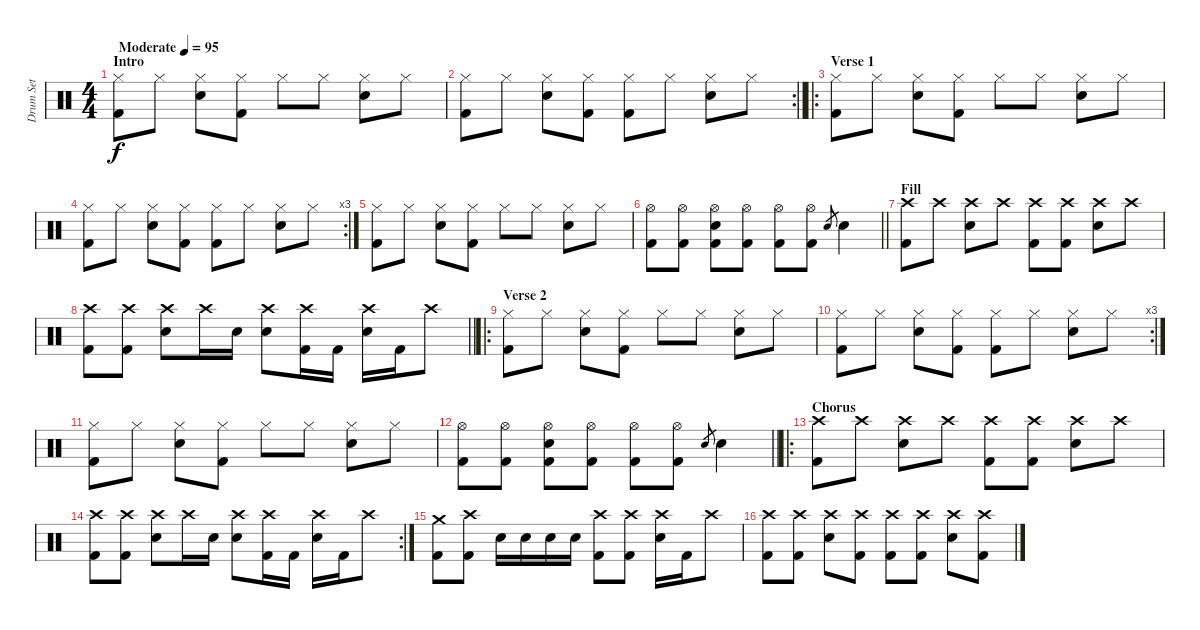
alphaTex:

\track ("Drum Set" "Drum Set") {instrument percussion}
\staff {score}
\articulation defaults
\ts (4 4)
\section ("" "Intro")
\tempo (95 "Moderate")
\clef neutral
\ks c
("Hi-Hat (closed)" "Kick (hit) 2").8{dy f} "Hi-Hat (closed)".8 ("Hi-Hat (closed)" "Snare (hit) 2").8 ("Hi-Hat (closed)" "Kick (hit) 2").8 "Hi-Hat (closed)".8 "Hi-Hat (closed)".8 ("Hi-Hat (closed)" "Snare (hit) 2").8 "Hi-Hat (closed)".8 |
\rc 2
\barLineRight lightlight
("Hi-Hat (closed)" "Kick (hit) 2").8 "Hi-Hat (closed)".8 ("Hi-Hat (closed)" "Snare (hit) 2").8 ("Hi-Hat (closed)" "Kick (hit) 2").8 ("Hi-Hat (closed)" "Kick (hit) 2").8 "Hi-Hat (closed)".8 ("Hi-Hat (closed)" "Snare (hit) 2").8 "Hi-Hat (closed)".8 |
\ro
\section ("" "Verse 1")
("Hi-Hat (closed)" "Kick (hit) 2").8 "Hi-Hat (closed)".8 ("Hi-Hat (closed)" "Snare (hit) 2").8 ("Hi-Hat (closed)" "Kick (hit) 2").8 "Hi-Hat (closed)".8 "Hi-Hat (closed)".8 ("Hi-Hat (closed)" "Snare (hit) 2").8 "Hi-Hat (closed)".8 |
\rc 3
("Hi-Hat (closed)" "Kick (hit) 2").8 "Hi-Hat (closed)".8 ("Hi-Hat (closed)" "Snare (hit) 2").8 ("Hi-Hat (closed)" "Kick (hit) 2").8 ("Hi-Hat (closed)" "Kick (hit) 2").8 "Hi-Hat (closed)".8 ("Hi-Hat (closed)" "Snare (hit) 2").8 "Hi-Hat (closed)".8 |
("Hi-Hat (closed)" "Kick (hit) 2").8 "Hi-Hat (closed)".8 ("Hi-Hat (closed)" "Snare (hit) 2").8 ("Hi-Hat (closed)" "Kick (hit) 2").8 "Hi-Hat (closed)".8 "Hi-Hat (closed)".8 ("Hi-Hat (closed)" "Snare (hit) 2").8 "Hi-Hat (closed)".8 |
\barLineRight lightlight
("Hi-Hat (open)" "Kick (hit) 2").8 ("Hi-Hat (open)" "Kick (hit) 2").8 ("Hi-Hat (open)" "Snare (hit) 2" "Kick (hit) 2").8 ("Hi-Hat (open)" "Kick (hit) 2").8 ("Hi-Hat (open)" "Kick (hit) 2").8 ("Hi-Hat (open)" "Kick (hit) 2").8 "Snare (hit) 2".8{gr} "Snare (hit) 2".4 |
\section ("" "Fill")
("Crash high (hit)" "Kick (hit) 2").8 "Crash high (hit)".8 ("Crash high (hit)" "Snare (hit) 2").8 "Crash high (hit)".8 ("Crash high (hit)" "Kick (hit) 2").8 ("Crash high (hit)" "Kick (hit) 2").8 ("Crash high (hit)" "Snare (hit) 2").8 "Crash high (hit)".8 |
\barLineRight lightlight
("Crash high (hit)" "Kick (hit) 2").8 ("Crash high (hit)" "Kick (hit) 2").8 ("Crash high (hit)" "Snare (hit) 2").8 "Crash high (hit)".16 "Snare (hit) 2".16 ("Crash high (hit)" "Snare (hit) 2").8 ("Crash high (hit)" "Kick (hit) 2").16 "Kick (hit) 2".16 ("Crash high (hit)" "Snare (hit) 2").16 "Kick (hit) 2".16 "Crash high (hit)".8 |
\ro
\section ("" "Verse 2")
("Hi-Hat (closed)" "Kick (hit) 2").8 "Hi-Hat (closed)".8 ("Hi-Hat (closed)" "Snare (hit) 2").8 ("Hi-Hat (closed)" "Kick (hit) 2").8 "Hi-Hat (closed)".8 "Hi-Hat (closed)".8 ("Hi-Hat (closed)" "Snare (hit) 2").8 "Hi-Hat (closed)".8 |
\rc 3
("Hi-Hat (closed)" "Kick (hit) 2").8 "Hi-Hat (closed)".8 ("Hi-Hat (closed)" "Snare (hit) 2").8 ("Hi-Hat (closed)" "Kick (hit) 2").8 ("Hi-Hat (closed)" "Kick (hit) 2").8 "Hi-Hat (closed)".8 ("Hi-Hat (closed)" "Snare (hit) 2").8 "Hi-Hat (closed)".8 |
("Hi-Hat (closed)" "Kick (hit) 2").8 "Hi-Hat (closed)".8 ("Hi-Hat (closed)" "Snare (hit) 2").8 ("Hi-Hat (closed)" "Kick (hit) 2").8 "Hi-Hat (closed)".8 "Hi-Hat (closed)".8 ("Hi-Hat (closed)" "Snare (hit) 2").8 "Hi-Hat (closed)".8 |
\barLineRight lightlight
("Hi-Hat (open)" "Kick (hit) 2").8 ("Hi-Hat (open)" "Kick (hit) 2").8 ("Hi-Hat (open)" "Snare (hit) 2" "Kick (hit) 2").8 ("Hi-Hat (open)" "Kick (hit) 2").8 ("Hi-Hat (open)" "Kick (hit) 2").8 ("Hi-Hat (open)" "Kick (hit) 2").8 "Snare (hit) 2".8{gr} "Snare (hit) 2".4 |
\ro
\section ("" "Chorus")
("Crash high (hit)" "Kick (hit) 2").8 "Crash high (hit)".8 ("Crash high (hit)" "Snare (hit) 2").8 "Crash high (hit)".8 ("Crash high (hit)" "Kick (hit) 2").8 ("Crash high (hit)" "Kick (hit) 2").8 ("Crash high (hit)" "Snare (hit) 2").8 "Crash high (hit)".8 |
\rc 2
("Crash high (hit)" "Kick (hit) 2").8 ("Crash high (hit)" "Kick (hit) 2").8 ("Crash high (hit)" "Snare (hit) 2").8 "Crash high (hit)".16 "Snare (hit) 2".16 ("Crash high (hit)" "Snare (hit) 2").8 ("Crash high (hit)" "Kick (hit) 2").16 "Kick (hit) 2".16 ("Crash high (hit)" "Snare (hit) 2").16 "Kick (hit) 2".16 "Crash high (hit)".8 |
("Crash medium (hit)" "Kick (hit) 2").8 ("Crash high (hit)" "Kick (hit) 2").8 "Snare (hit) 2".16 "Snare (hit) 2".16 "Snare (hit) 2".16 "Snare (hit) 2".16 ("Crash high (hit)" "Kick (hit) 2").8 ("Crash high (hit)" "Kick (hit) 2").8 ("Crash high (hit)" "Snare (hit) 2").16 "Kick (hit) 2".16 "Crash high (hit)".8 |
("Crash high (hit)" "Kick (hit) 2").8 ("Crash high (hit)" "Kick (hit) 2").8 ("Crash high (hit)" "Snare (hit) 2").8 ("Crash high (hit)" "Kick (hit) 2").8 ("Crash high (hit)" "Kick (hit) 2").8 ("Crash high (hit)" "Kick (hit) 2").8 ("Crash high (hit)" "Snare (hit) 2").8 ("Crash high (hit)" "Kick (hit) 2").8
